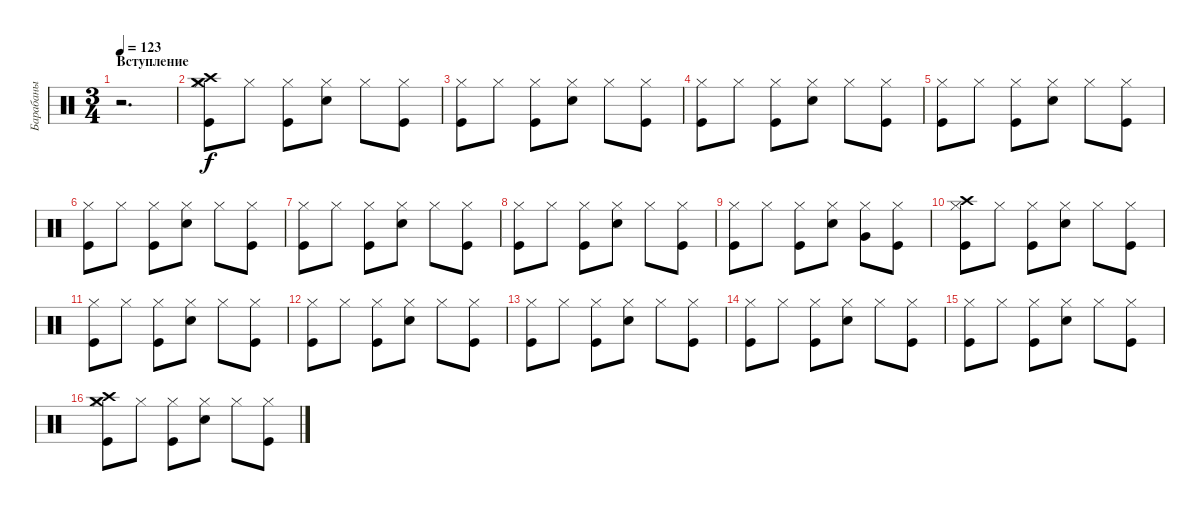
\track ("Барабаны" "Барабаны") {instrument percussion}
\staff {score}
\articulation defaults
\ts (3 4)
\section ("" "Вступление")
\tempo 123
\clef neutral
\ks c
r.2{d dy f} |
("Kick (hit)" "Hi-Hat (closed)" "Crash high (hit)" "Crash medium (hit)").8 "Hi-Hat (closed)".8 ("Kick (hit)" "Hi-Hat (closed)").8 ("Snare (hit) 2" "Hi-Hat (closed)").8 "Hi-Hat (closed)".8 ("Kick (hit)" "Hi-Hat (closed)").8 |
("Kick (hit)" "Hi-Hat (closed)").8 "Hi-Hat (closed)".8 ("Kick (hit)" "Hi-Hat (closed)").8 ("Snare (hit) 2" "Hi-Hat (closed)").8 "Hi-Hat (closed)".8 ("Kick (hit)" "Hi-Hat (closed)").8 |
("Kick (hit)" "Hi-Hat (closed)").8 "Hi-Hat (closed)".8 ("Kick (hit)" "Hi-Hat (closed)").8 ("Snare (hit) 2" "Hi-Hat (closed)").8 "Hi-Hat (closed)".8 ("Kick (hit)" "Hi-Hat (closed)").8 |
("Kick (hit)" "Hi-Hat (closed)").8 "Hi-Hat (closed)".8 ("Kick (hit)" "Hi-Hat (closed)").8 ("Snare (hit) 2" "Hi-Hat (closed)").8 "Hi-Hat (closed)".8 ("Kick (hit)" "Hi-Hat (closed)").8 |
("Kick (hit)" "Hi-Hat (closed)").8 "Hi-Hat (closed)".8 ("Kick (hit)" "Hi-Hat (closed)").8 ("Snare (hit) 2" "Hi-Hat (closed)").8 "Hi-Hat (closed)".8 ("Kick (hit)" "Hi-Hat (closed)").8 |
("Kick (hit)" "Hi-Hat (closed)").8 "Hi-Hat (closed)".8 ("Kick (hit)" "Hi-Hat (closed)").8 ("Snare (hit) 2" "Hi-Hat (closed)").8 "Hi-Hat (closed)".8 ("Kick (hit)" "Hi-Hat (closed)").8 |
("Kick (hit)" "Hi-Hat (closed)").8 "Hi-Hat (closed)".8 ("Kick (hit)" "Hi-Hat (closed)").8 ("Snare (hit) 2" "Hi-Hat (closed)").8 "Hi-Hat (closed)".8 ("Kick (hit)" "Hi-Hat (closed)").8 |
("Kick (hit)" "Hi-Hat (closed)").8 "Hi-Hat (closed)".8 ("Kick (hit)" "Hi-Hat (closed)").8 ("Snare (hit) 2" "Hi-Hat (closed)").8 ("Hi-Hat (closed)" "Very Low Tom (hit)").8 ("Kick (hit)" "Hi-Hat (closed)").8 |
("Kick (hit)" "Hi-Hat (closed)" "Crash high (hit)").8 "Hi-Hat (closed)".8 ("Kick (hit)" "Hi-Hat (closed)").8 ("Snare (hit) 2" "Hi-Hat (closed)").8 "Hi-Hat (closed)".8 ("Kick (hit)" "Hi-Hat (closed)").8 |
("Kick (hit)" "Hi-Hat (closed)").8 "Hi-Hat (closed)".8 ("Kick (hit)" "Hi-Hat (closed)").8 ("Snare (hit) 2" "Hi-Hat (closed)").8 "Hi-Hat (closed)".8 ("Kick (hit)" "Hi-Hat (closed)").8 |
("Kick (hit)" "Hi-Hat (closed)").8 "Hi-Hat (closed)".8 ("Kick (hit)" "Hi-Hat (closed)").8 ("Snare (hit) 2" "Hi-Hat (closed)").8 "Hi-Hat (closed)".8 ("Kick (hit)" "Hi-Hat (closed)").8 |
("Kick (hit)" "Hi-Hat (closed)").8 "Hi-Hat (closed)".8 ("Kick (hit)" "Hi-Hat (closed)").8 ("Snare (hit) 2" "Hi-Hat (closed)").8 "Hi-Hat (closed)".8 ("Kick (hit)" "Hi-Hat (closed)").8 |
("Kick (hit)" "Hi-Hat (closed)").8 "Hi-Hat (closed)".8 ("Kick (hit)" "Hi-Hat (closed)").8 ("Snare (hit) 2" "Hi-Hat (closed)").8 "Hi-Hat (closed)".8 ("Kick (hit)" "Hi-Hat (closed)").8 |
("Kick (hit)" "Hi-Hat (closed)").8 "Hi-Hat (closed)".8 ("Kick (hit)" "Hi-Hat (closed)").8 ("Snare (hit) 2" "Hi-Hat (closed)").8 "Hi-Hat (closed)".8 ("Kick (hit)" "Hi-Hat (closed)").8 |
("Kick (hit)" "Hi-Hat (closed)" "Crash high (hit)" "Crash medium (hit)").8 "Hi-Hat (closed)".8 ("Kick (hit)" "Hi-Hat (closed)").8 ("Snare (hit) 2" "Hi-Hat (closed)").8 "Hi-Hat (closed)".8 ("Kick (hit)" "Hi-Hat (closed)").8
